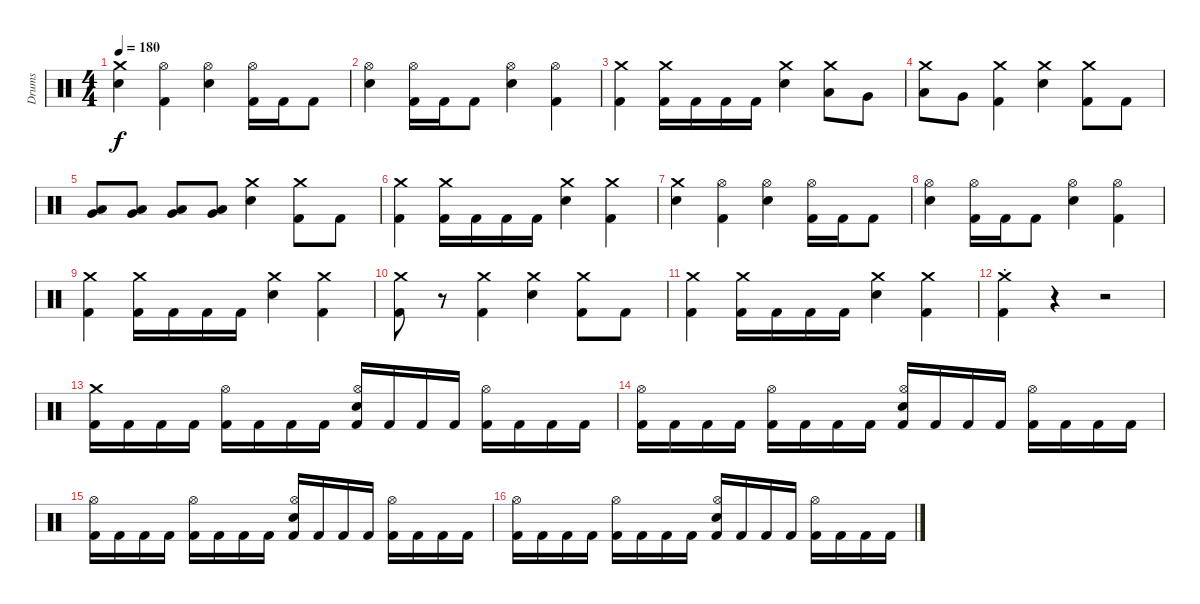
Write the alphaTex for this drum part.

\track ("Drums" "Drums") {instrument percussion}
\staff {score}
\articulation defaults
\ts (4 4)
\tempo 180
\clef neutral
\ks c
("Crash medium (hit)" "Electric Snare (hit)").4{dy f} ("Hi-Hat (open)" "Kick (hit) 2").4 ("Hi-Hat (open)" "Electric Snare (hit)").4 ("Hi-Hat (open)" "Kick (hit) 2").16 "Kick (hit) 2".16 "Kick (hit) 2".8 |
("Hi-Hat (open)" "Electric Snare (hit)").4 ("Hi-Hat (open)" "Kick (hit) 2").16 "Kick (hit) 2".16 "Kick (hit) 2".8 ("Hi-Hat (open)" "Electric Snare (hit)").4 ("Hi-Hat (open)" "Kick (hit) 2").4 |
("Crash medium (hit)" "Kick (hit) 2").4 ("Crash medium (hit)" "Kick (hit) 2").16 "Kick (hit) 2".16 "Kick (hit) 2".16 "Kick (hit) 2".16 ("Crash medium (hit)" "Electric Snare (hit)").4 ("Crash medium (hit)" "Low Tom (hit)").8 "Very Low Tom (hit)".8 |
("Crash medium (hit)" "Low Tom (hit)").8 "Very Low Tom (hit)".8 ("Crash medium (hit)" "Kick (hit) 2").4 ("Crash medium (hit)" "Electric Snare (hit)").4 ("Crash medium (hit)" "Kick (hit) 2").8 "Kick (hit) 2".8 |
("Low Tom (hit)" "Very Low Tom (hit)").8{bd 60} ("Low Tom (hit)" "Very Low Tom (hit)").8{bd 60} ("Low Tom (hit)" "Very Low Tom (hit)").8{bd 60} ("Low Tom (hit)" "Very Low Tom (hit)").8{bd 60} ("Crash medium (hit)" "Electric Snare (hit)").4 ("Crash medium (hit)" "Kick (hit) 2").8 "Kick (hit) 2".8 |
("Crash medium (hit)" "Kick (hit) 2").4 ("Crash medium (hit)" "Kick (hit) 2").16 "Kick (hit) 2".16 "Kick (hit) 2".16 "Kick (hit) 2".16 ("Crash medium (hit)" "Electric Snare (hit)").4 ("Crash medium (hit)" "Kick (hit) 2").4 |
("Crash medium (hit)" "Electric Snare (hit)").4 ("Hi-Hat (open)" "Kick (hit) 2").4 ("Hi-Hat (open)" "Electric Snare (hit)").4 ("Hi-Hat (open)" "Kick (hit) 2").16 "Kick (hit) 2".16 "Kick (hit) 2".8 |
("Hi-Hat (open)" "Electric Snare (hit)").4 ("Hi-Hat (open)" "Kick (hit) 2").16 "Kick (hit) 2".16 "Kick (hit) 2".8 ("Hi-Hat (open)" "Electric Snare (hit)").4 ("Hi-Hat (open)" "Kick (hit) 2").4 |
("Crash medium (hit)" "Kick (hit) 2").4 ("Crash medium (hit)" "Kick (hit) 2").16 "Kick (hit) 2".16 "Kick (hit) 2".16 "Kick (hit) 2".16 ("Crash medium (hit)" "Electric Snare (hit)").4 ("Crash medium (hit)" "Kick (hit) 2").4 |
("Crash medium (hit)" "Kick (hit) 2").8 r.8 ("Crash medium (hit)" "Kick (hit) 2").4 ("Crash medium (hit)" "Electric Snare (hit)").4 ("Crash medium (hit)" "Kick (hit) 2").8 "Kick (hit) 2".8 |
("Crash medium (hit)" "Kick (hit) 2").4 ("Crash medium (hit)" "Kick (hit) 2").16 "Kick (hit) 2".16 "Kick (hit) 2".16 "Kick (hit) 2".16 ("Crash medium (hit)" "Electric Snare (hit)").4 ("Crash medium (hit)" "Kick (hit) 2").4 |
("Crash medium (hit)"{st} "Kick (hit) 2"{st}).4 r.4 r.2 |
("Crash medium (hit)" "Kick (hit) 2").16 "Kick (hit) 2".16 "Kick (hit) 2".16 "Kick (hit) 2".16 ("Hi-Hat (open)" "Kick (hit) 2").16 "Kick (hit) 2".16 "Kick (hit) 2".16 "Kick (hit) 2".16 ("Hi-Hat (open)" "Electric Snare (hit)" "Kick (hit) 2").16 "Kick (hit) 2".16 "Kick (hit) 2".16 "Kick (hit) 2".16 ("Hi-Hat (open)" "Kick (hit) 2").16 "Kick (hit) 2".16 "Kick (hit) 2".16 "Kick (hit) 2".16 |
("Hi-Hat (open)" "Kick (hit) 2").16 "Kick (hit) 2".16 "Kick (hit) 2".16 "Kick (hit) 2".16 ("Hi-Hat (open)" "Kick (hit) 2").16 "Kick (hit) 2".16 "Kick (hit) 2".16 "Kick (hit) 2".16 ("Hi-Hat (open)" "Electric Snare (hit)" "Kick (hit) 2").16 "Kick (hit) 2".16 "Kick (hit) 2".16 "Kick (hit) 2".16 ("Hi-Hat (open)" "Kick (hit) 2").16 "Kick (hit) 2".16 "Kick (hit) 2".16 "Kick (hit) 2".16 |
("Hi-Hat (open)" "Kick (hit) 2").16 "Kick (hit) 2".16 "Kick (hit) 2".16 "Kick (hit) 2".16 ("Hi-Hat (open)" "Kick (hit) 2").16 "Kick (hit) 2".16 "Kick (hit) 2".16 "Kick (hit) 2".16 ("Hi-Hat (open)" "Electric Snare (hit)" "Kick (hit) 2").16 "Kick (hit) 2".16 "Kick (hit) 2".16 "Kick (hit) 2".16 ("Hi-Hat (open)" "Kick (hit) 2").16 "Kick (hit) 2".16 "Kick (hit) 2".16 "Kick (hit) 2".16 |
("Hi-Hat (open)" "Kick (hit) 2").16 "Kick (hit) 2".16 "Kick (hit) 2".16 "Kick (hit) 2".16 ("Hi-Hat (open)" "Kick (hit) 2").16 "Kick (hit) 2".16 "Kick (hit) 2".16 "Kick (hit) 2".16 ("Hi-Hat (open)" "Electric Snare (hit)" "Kick (hit) 2").16 "Kick (hit) 2".16 "Kick (hit) 2".16 "Kick (hit) 2".16 ("Hi-Hat (open)" "Kick (hit) 2").16 "Kick (hit) 2".16 "Kick (hit) 2".16 "Kick (hit) 2".16
